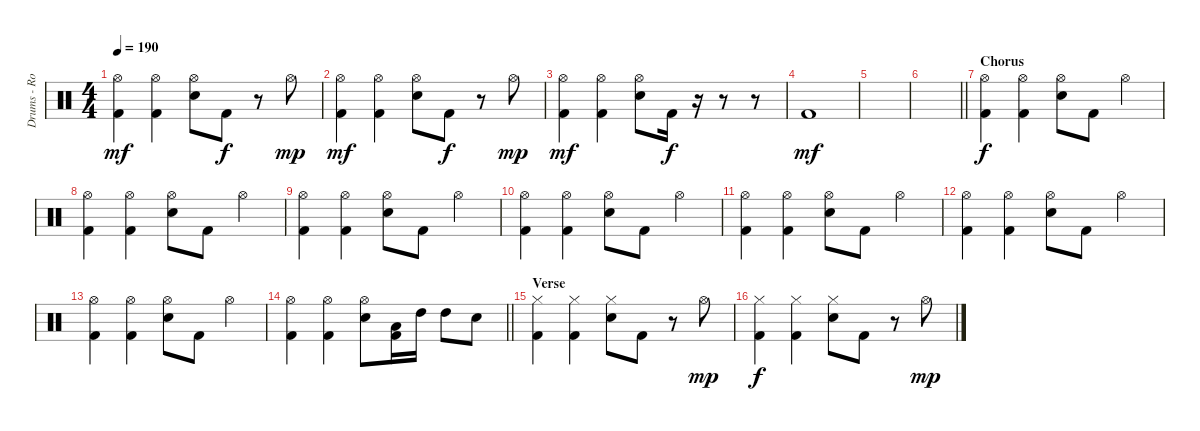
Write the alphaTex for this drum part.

\track ("Drums - Rob Bourdon" "Drums - Ro") {instrument percussion}
\staff {score}
\articulation defaults
\ts (4 4)
\tempo 190
\clef neutral
\ks c
("Hi-Hat (open)" "Kick (hit) 2").4{dy mf} ("Hi-Hat (open)" "Kick (hit) 2").4 ("Hi-Hat (open)" "Snare (hit) 2").8 "Kick (hit) 2".8{dy f} r.8 "Hi-Hat (open)".8{dy mp} |
("Hi-Hat (open)" "Kick (hit) 2").4{dy mf} ("Hi-Hat (open)" "Kick (hit) 2").4 ("Hi-Hat (open)" "Snare (hit) 2").8 "Kick (hit) 2".8{dy f} r.8 "Hi-Hat (open)".8{dy mp} |
("Hi-Hat (open)" "Kick (hit) 2").4{dy mf} ("Hi-Hat (open)" "Kick (hit) 2").4 ("Hi-Hat (open)" "Snare (hit) 2").8 "Kick (hit) 2".16{dy f} r.16 r.8 r.8 |
"Kick (hit) 2".1{dy mf} |
|
\barLineRight lightlight
|
\section ("" "Chorus")
("Hi-Hat (open)" "Kick (hit) 2").4{dy f} ("Hi-Hat (open)" "Kick (hit) 2").4 ("Hi-Hat (open)" "Snare (hit) 2").8 "Kick (hit) 2".8 "Hi-Hat (open)".4 |
("Hi-Hat (open)" "Kick (hit) 2").4 ("Hi-Hat (open)" "Kick (hit) 2").4 ("Hi-Hat (open)" "Snare (hit) 2").8 "Kick (hit) 2".8 "Hi-Hat (open)".4 |
("Hi-Hat (open)" "Kick (hit) 2").4 ("Hi-Hat (open)" "Kick (hit) 2").4 ("Hi-Hat (open)" "Snare (hit) 2").8 "Kick (hit) 2".8 "Hi-Hat (open)".4 |
("Hi-Hat (open)" "Kick (hit) 2").4 ("Hi-Hat (open)" "Kick (hit) 2").4 ("Hi-Hat (open)" "Snare (hit) 2").8 "Kick (hit) 2".8 "Hi-Hat (open)".4 |
("Hi-Hat (open)" "Kick (hit) 2").4 ("Hi-Hat (open)" "Kick (hit) 2").4 ("Hi-Hat (open)" "Snare (hit) 2").8 "Kick (hit) 2".8 "Hi-Hat (open)".4 |
("Hi-Hat (open)" "Kick (hit) 2").4 ("Hi-Hat (open)" "Kick (hit) 2").4 ("Hi-Hat (open)" "Snare (hit) 2").8 "Kick (hit) 2".8 "Hi-Hat (open)".4 |
("Hi-Hat (open)" "Kick (hit) 2").4 ("Hi-Hat (open)" "Kick (hit) 2").4 ("Hi-Hat (open)" "Snare (hit) 2").8 "Kick (hit) 2".8 "Hi-Hat (open)".4 |
\barLineRight lightlight
("Hi-Hat (open)" "Kick (hit) 2").4 ("Hi-Hat (open)" "Kick (hit) 2").4 ("Hi-Hat (open)" "Snare (hit) 2").8 ("Low Tom (hit)" "Kick (hit) 2").16 "High Tom (hit)".16 "High Tom (hit)".8 "Snare (hit) 2".8 |
\section ("" "Verse")
("Hi-Hat (closed)" "Kick (hit) 2").4 ("Hi-Hat (closed)" "Kick (hit) 2").4 ("Hi-Hat (closed)" "Snare (hit) 2").8 "Kick (hit) 2".8 r.8 "Hi-Hat (open)".8{dy mp} |
("Hi-Hat (closed)" "Kick (hit) 2").4{dy f} ("Hi-Hat (closed)" "Kick (hit) 2").4 ("Hi-Hat (closed)" "Snare (hit) 2").8 "Kick (hit) 2".8 r.8 "Hi-Hat (open)".8{dy mp}
